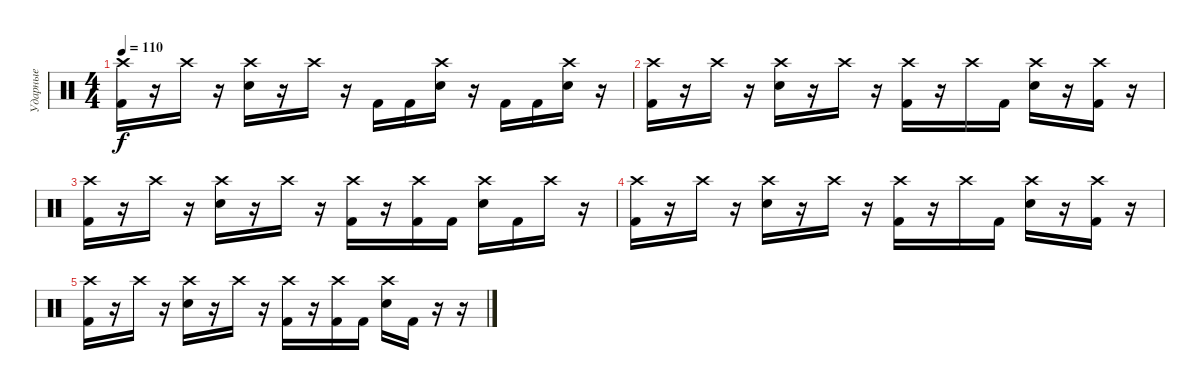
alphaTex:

\track ("Ударные" "Ударные") {instrument percussion}
\staff {score}
\articulation defaults
\ts (4 4)
\tempo 110
\clef neutral
\ks c
("Crash high (hit)" "Kick (hit) 2").16{dy f} r.16 "Crash high (hit)".16 r.16 ("Crash high (hit)" "Electric Snare (hit)").16 r.16 "Crash high (hit)".16 r.16 "Kick (hit) 2".16 "Kick (hit) 2".16 ("Crash high (hit)" "Electric Snare (hit)").16 r.16 "Kick (hit) 2".16 "Kick (hit) 2".16 ("Crash high (hit)" "Electric Snare (hit)").16 r.16 |
("Crash high (hit)" "Kick (hit) 2").16 r.16 "Crash high (hit)".16 r.16 ("Crash high (hit)" "Electric Snare (hit)").16 r.16 "Crash high (hit)".16 r.16 ("Crash high (hit)" "Kick (hit) 2").16 r.16 "Crash high (hit)".16 "Kick (hit) 2".16 ("Crash high (hit)" "Electric Snare (hit)").16 r.16 ("Crash high (hit)" "Kick (hit) 2").16 r.16 |
("Crash high (hit)" "Kick (hit) 2").16 r.16 "Crash high (hit)".16 r.16 ("Crash high (hit)" "Electric Snare (hit)").16 r.16 "Crash high (hit)".16 r.16 ("Crash high (hit)" "Kick (hit) 2").16 r.16 ("Crash high (hit)" "Kick (hit) 2").16 "Kick (hit) 2".16 ("Crash high (hit)" "Electric Snare (hit)").16 "Kick (hit) 2".16 "Crash high (hit)".16 r.16 |
("Crash high (hit)" "Kick (hit) 2").16 r.16 "Crash high (hit)".16 r.16 ("Crash high (hit)" "Electric Snare (hit)").16 r.16 "Crash high (hit)".16 r.16 ("Crash high (hit)" "Kick (hit) 2").16 r.16 "Crash high (hit)".16 "Kick (hit) 2".16 ("Crash high (hit)" "Electric Snare (hit)").16 r.16 ("Crash high (hit)" "Kick (hit) 2").16 r.16 |
("Crash high (hit)" "Kick (hit) 2").16 r.16 "Crash high (hit)".16 r.16 ("Crash high (hit)" "Electric Snare (hit)").16 r.16 "Crash high (hit)".16 r.16 ("Crash high (hit)" "Kick (hit) 2").16 r.16 ("Crash high (hit)" "Kick (hit) 2").16 "Kick (hit) 2".16 ("Crash high (hit)" "Electric Snare (hit)").16 "Kick (hit) 2".16 r.16 r.16
